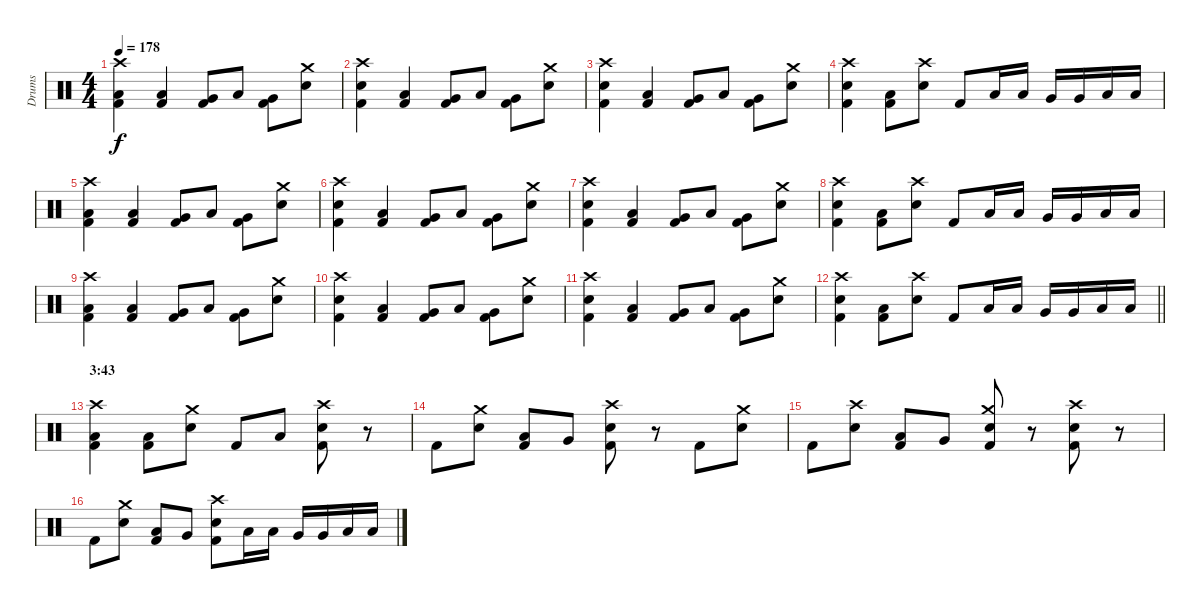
\track ("Drums" "Drums") {instrument percussion}
\staff {score}
\articulation defaults
\ts (4 4)
\tempo 178
\clef neutral
\ks c
("Crash high (hit)" "Low Floor Tom (hit)" "Kick (hit) 2").4{dy f} ("Low Floor Tom (hit)" "Kick (hit) 2").4 ("Very Low Tom (hit)" "Kick (hit) 2").8 "Low Floor Tom (hit)".8 ("Very Low Tom (hit)" "Kick (hit) 2").8 ("Crash medium (hit)" "Electric Snare (hit)").8 |
("Crash high (hit)" "Electric Snare (hit)" "Kick (hit) 2").4 ("Low Floor Tom (hit)" "Kick (hit) 2").4 ("Very Low Tom (hit)" "Kick (hit) 2").8 "Low Floor Tom (hit)".8 ("Very Low Tom (hit)" "Kick (hit) 2").8 ("Crash medium (hit)" "Electric Snare (hit)").8 |
("Crash high (hit)" "Electric Snare (hit)" "Kick (hit) 2").4 ("Low Floor Tom (hit)" "Kick (hit) 2").4 ("Very Low Tom (hit)" "Kick (hit) 2").8 "Low Floor Tom (hit)".8 ("Very Low Tom (hit)" "Kick (hit) 2").8 ("Crash medium (hit)" "Electric Snare (hit)").8 |
("Crash high (hit)" "Electric Snare (hit)" "Kick (hit) 2").4 ("Low Floor Tom (hit)" "Kick (hit) 2").8 ("Crash high (hit)" "Electric Snare (hit)").8 "Kick (hit) 2".8 "Low Floor Tom (hit)".16 "Low Floor Tom (hit)".16 "Very Low Tom (hit)".16 "Very Low Tom (hit)".16 "Low Floor Tom (hit)".16 "Low Floor Tom (hit)".16 |
("Crash high (hit)" "Low Floor Tom (hit)" "Kick (hit) 2").4 ("Low Floor Tom (hit)" "Kick (hit) 2").4 ("Very Low Tom (hit)" "Kick (hit) 2").8 "Low Floor Tom (hit)".8 ("Very Low Tom (hit)" "Kick (hit) 2").8 ("Crash medium (hit)" "Electric Snare (hit)").8 |
("Crash high (hit)" "Electric Snare (hit)" "Kick (hit) 2").4 ("Low Floor Tom (hit)" "Kick (hit) 2").4 ("Very Low Tom (hit)" "Kick (hit) 2").8 "Low Floor Tom (hit)".8 ("Very Low Tom (hit)" "Kick (hit) 2").8 ("Crash medium (hit)" "Electric Snare (hit)").8 |
("Crash high (hit)" "Electric Snare (hit)" "Kick (hit) 2").4 ("Low Floor Tom (hit)" "Kick (hit) 2").4 ("Very Low Tom (hit)" "Kick (hit) 2").8 "Low Floor Tom (hit)".8 ("Very Low Tom (hit)" "Kick (hit) 2").8 ("Crash medium (hit)" "Electric Snare (hit)").8 |
("Crash high (hit)" "Electric Snare (hit)" "Kick (hit) 2").4 ("Low Floor Tom (hit)" "Kick (hit) 2").8 ("Crash high (hit)" "Electric Snare (hit)").8 "Kick (hit) 2".8 "Low Floor Tom (hit)".16 "Low Floor Tom (hit)".16 "Very Low Tom (hit)".16 "Very Low Tom (hit)".16 "Low Floor Tom (hit)".16 "Low Floor Tom (hit)".16 |
("Crash high (hit)" "Low Floor Tom (hit)" "Kick (hit) 2").4 ("Low Floor Tom (hit)" "Kick (hit) 2").4 ("Very Low Tom (hit)" "Kick (hit) 2").8 "Low Floor Tom (hit)".8 ("Very Low Tom (hit)" "Kick (hit) 2").8 ("Crash medium (hit)" "Electric Snare (hit)").8 |
("Crash high (hit)" "Electric Snare (hit)" "Kick (hit) 2").4 ("Low Floor Tom (hit)" "Kick (hit) 2").4 ("Very Low Tom (hit)" "Kick (hit) 2").8 "Low Floor Tom (hit)".8 ("Very Low Tom (hit)" "Kick (hit) 2").8 ("Crash medium (hit)" "Electric Snare (hit)").8 |
("Crash high (hit)" "Electric Snare (hit)" "Kick (hit) 2").4 ("Low Floor Tom (hit)" "Kick (hit) 2").4 ("Very Low Tom (hit)" "Kick (hit) 2").8 "Low Floor Tom (hit)".8 ("Very Low Tom (hit)" "Kick (hit) 2").8 ("Crash medium (hit)" "Electric Snare (hit)").8 |
\barLineRight lightlight
("Crash high (hit)" "Electric Snare (hit)" "Kick (hit) 2").4 ("Low Floor Tom (hit)" "Kick (hit) 2").8 ("Crash high (hit)" "Electric Snare (hit)").8 "Kick (hit) 2".8 "Low Floor Tom (hit)".16 "Low Floor Tom (hit)".16 "Very Low Tom (hit)".16 "Very Low Tom (hit)".16 "Low Floor Tom (hit)".16 "Low Floor Tom (hit)".16 |
\section ("" "3:43")
("Crash high (hit)" "Low Floor Tom (hit)" "Kick (hit) 2").4 ("Low Floor Tom (hit)" "Kick (hit) 2").8 ("Crash medium (hit)" "Electric Snare (hit)").8 "Kick (hit) 2".8 "Low Floor Tom (hit)".8 ("Crash high (hit)" "Electric Snare (hit)" "Kick (hit) 2").8 r.8 |
"Kick (hit) 2".8 ("Crash medium (hit)" "Electric Snare (hit)").8 ("Low Floor Tom (hit)" "Kick (hit) 2").8 "Very Low Tom (hit)".8 ("Crash high (hit)" "Electric Snare (hit)" "Kick (hit) 2").8 r.8 "Kick (hit) 2".8 ("Crash medium (hit)" "Electric Snare (hit)").8 |
"Kick (hit) 2".8 ("Crash high (hit)" "Electric Snare (hit)").8 ("Low Floor Tom (hit)" "Kick (hit) 2").8 "Very Low Tom (hit)".8 ("Crash medium (hit)" "Electric Snare (hit)" "Kick (hit) 2").8 r.8 ("Crash high (hit)" "Electric Snare (hit)" "Kick (hit) 2").8 r.8 |
"Kick (hit) 2".8 ("Crash medium (hit)" "Electric Snare (hit)").8 ("Low Floor Tom (hit)" "Kick (hit) 2").8 "Very Low Tom (hit)".8 ("Crash high (hit)" "Electric Snare (hit)" "Kick (hit) 2").8 "Low Floor Tom (hit)".16 "Low Floor Tom (hit)".16 "Very Low Tom (hit)".16 "Very Low Tom (hit)".16 "Low Floor Tom (hit)".16 "Low Floor Tom (hit)".16
